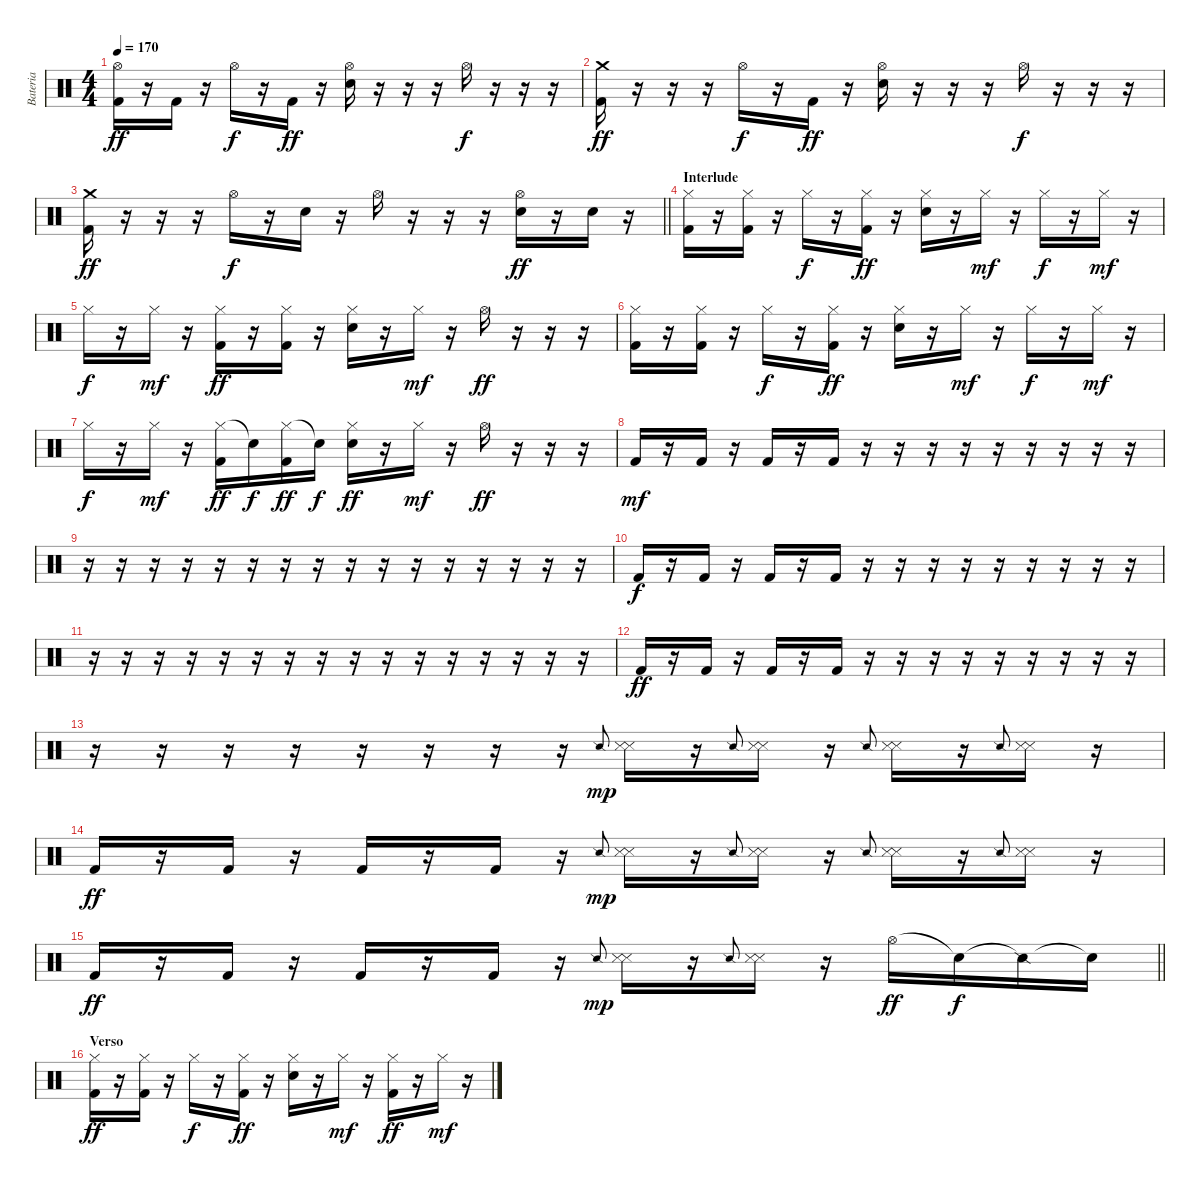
\track ("Bateria" "Bateria") {instrument percussion}
\staff {score}
\articulation defaults
\ts (4 4)
\tempo 170
\clef neutral
\ks c
("Hi-Hat (open)" "Kick (hit) 2").16{dy ff} r.16 "Kick (hit) 2".16 r.16 "Hi-Hat (open)".16{dy f} r.16 "Kick (hit) 2".16{dy ff} r.16 ("Hi-Hat (open)" "Electric Snare (hit)").16 r.16 r.16 r.16 "Hi-Hat (open)".16{dy f} r.16 r.16 r.16 |
("Crash medium (hit)" "Kick (hit) 2").16{dy ff} r.16 r.16 r.16 "Hi-Hat (open)".16{dy f} r.16 "Kick (hit) 2".16{dy ff} r.16 ("Hi-Hat (open)" "Electric Snare (hit)").16 r.16 r.16 r.16 "Hi-Hat (open)".16{dy f} r.16 r.16 r.16 |
\barLineRight lightlight
("Crash medium (hit)" "Kick (hit) 2").16{dy ff} r.16 r.16 r.16 "Hi-Hat (open)".16{dy f} r.16 "Electric Snare (hit)".16 r.16 "Hi-Hat (open)".16 r.16 r.16 r.16 ("Hi-Hat (open)" "Electric Snare (hit)").16{dy ff} r.16 "Electric Snare (hit)".16 r.16 |
\section ("" "Interlude")
("Hi-Hat (closed)" "Kick (hit) 2").16 r.16 ("Hi-Hat (closed)" "Kick (hit) 2").16 r.16 "Hi-Hat (closed)".16{dy f} r.16 ("Hi-Hat (closed)" "Kick (hit) 2").16{dy ff} r.16 ("Hi-Hat (closed)" "Electric Snare (hit)").16 r.16 "Hi-Hat (closed)".16{dy mf} r.16 "Hi-Hat (closed)".16{dy f} r.16 "Hi-Hat (closed)".16{dy mf} r.16 |
"Hi-Hat (closed)".16{dy f} r.16 "Hi-Hat (closed)".16{dy mf} r.16 ("Hi-Hat (closed)" "Kick (hit) 2").16{dy ff} r.16 ("Hi-Hat (closed)" "Kick (hit) 2").16 r.16 ("Hi-Hat (closed)" "Electric Snare (hit)").16 r.16 "Hi-Hat (closed)".16{dy mf} r.16 "Hi-Hat (open)".16{dy ff} r.16 r.16 r.16 |
("Hi-Hat (closed)" "Kick (hit) 2").16 r.16 ("Hi-Hat (closed)" "Kick (hit) 2").16 r.16 "Hi-Hat (closed)".16{dy f} r.16 ("Hi-Hat (closed)" "Kick (hit) 2").16{dy ff} r.16 ("Hi-Hat (closed)" "Electric Snare (hit)").16 r.16 "Hi-Hat (closed)".16{dy mf} r.16 "Hi-Hat (closed)".16{dy f} r.16 "Hi-Hat (closed)".16{dy mf} r.16 |
"Hi-Hat (closed)".16{dy f} r.16 "Hi-Hat (closed)".16{dy mf} r.16 ("Hi-Hat (closed)" "Kick (hit) 2").16{dy ff} "Snare (hit)"{t}.16{dy f} ("Hi-Hat (closed)" "Kick (hit) 2").16{dy ff} "Snare (hit)"{t}.16{dy f} ("Hi-Hat (closed)" "Electric Snare (hit)").16{dy ff} r.16 "Hi-Hat (closed)".16{dy mf} r.16 "Hi-Hat (open)".16{dy ff} r.16 r.16 r.16 |
"Kick (hit) 2".16{dy mf} r.16 "Kick (hit) 2".16 r.16 "Kick (hit) 2".16 r.16 "Kick (hit) 2".16 r.16 r.16 r.16 r.16 r.16 r.16 r.16 r.16 r.16 |
r.16 r.16 r.16 r.16 r.16 r.16 r.16 r.16 r.16 r.16 r.16 r.16 r.16 r.16 r.16 r.16 |
"Kick (hit) 2".16{dy f} r.16 "Kick (hit) 2".16 r.16 "Kick (hit) 2".16 r.16 "Kick (hit) 2".16 r.16 r.16 r.16 r.16 r.16 r.16 r.16 r.16 r.16 |
r.16 r.16 r.16 r.16 r.16 r.16 r.16 r.16 r.16 r.16 r.16 r.16 r.16 r.16 r.16 r.16 |
"Kick (hit) 2".16{dy ff} r.16 "Kick (hit) 2".16 r.16 "Kick (hit) 2".16 r.16 "Kick (hit) 2".16 r.16 r.16 r.16 r.16 r.16 r.16 r.16 r.16 r.16 |
r.16 r.16 r.16 r.16 r.16 r.16 r.16 r.16 "Snare (side stick) 2".8{gr onbeat dy mp} ("Snare (side stick) 3" "Snare (side stick) 3").16 r.16 "Snare (side stick) 2".8{gr onbeat} ("Snare (side stick) 3" "Snare (side stick) 3").16 r.16 "Snare (side stick) 2".8{gr onbeat} ("Snare (side stick) 3" "Snare (side stick) 3").16 r.16 "Snare (side stick) 2".8{gr onbeat} ("Snare (side stick) 3" "Snare (side stick) 3").16 r.16 |
"Kick (hit) 2".16{dy ff} r.16 "Kick (hit) 2".16 r.16 "Kick (hit) 2".16 r.16 "Kick (hit) 2".16 r.16 "Snare (side stick) 2".8{gr onbeat dy mp} ("Snare (side stick) 3" "Snare (side stick) 3").16 r.16 "Snare (side stick) 2".8{gr onbeat} ("Snare (side stick) 3" "Snare (side stick) 3").16 r.16 "Snare (side stick) 2".8{gr onbeat} ("Snare (side stick) 3" "Snare (side stick) 3").16 r.16 "Snare (side stick) 2".8{gr onbeat} ("Snare (side stick) 3" "Snare (side stick) 3").16 r.16 |
\barLineRight lightlight "Kick (hit) 2".16{dy ff}
r.16 "Kick (hit) 2".16 r.16 "Kick (hit) 2".16 r.16 "Kick (hit) 2".16 r.16 "Snare (side stick) 2".8{gr onbeat dy mp} ("Snare (side stick) 3" "Snare (side stick) 3").16 r.16 "Snare (side stick) 2".8{gr onbeat} ("Snare (side stick) 3" "Snare (side stick) 3").16 r.16 "Hi-Hat (open)".16{dy ff} "Snare (hit)"{t}.16{dy f} "Snare (side stick) 2"{t}.16 "Snare (hit)"{t}.16 |
\section ("" "Verso")
("Hi-Hat (closed)" "Kick (hit) 2").16{dy ff} r.16 ("Hi-Hat (closed)" "Kick (hit) 2").16 r.16 "Hi-Hat (closed)".16{dy f} r.16 ("Hi-Hat (closed)" "Kick (hit) 2").16{dy ff} r.16 ("Hi-Hat (closed)" "Electric Snare (hit)").16 r.16 "Hi-Hat (closed)".16{dy mf} r.16 ("Hi-Hat (closed)" "Kick (hit) 2").16{dy ff} r.16 "Hi-Hat (closed)".16{dy mf} r.16
